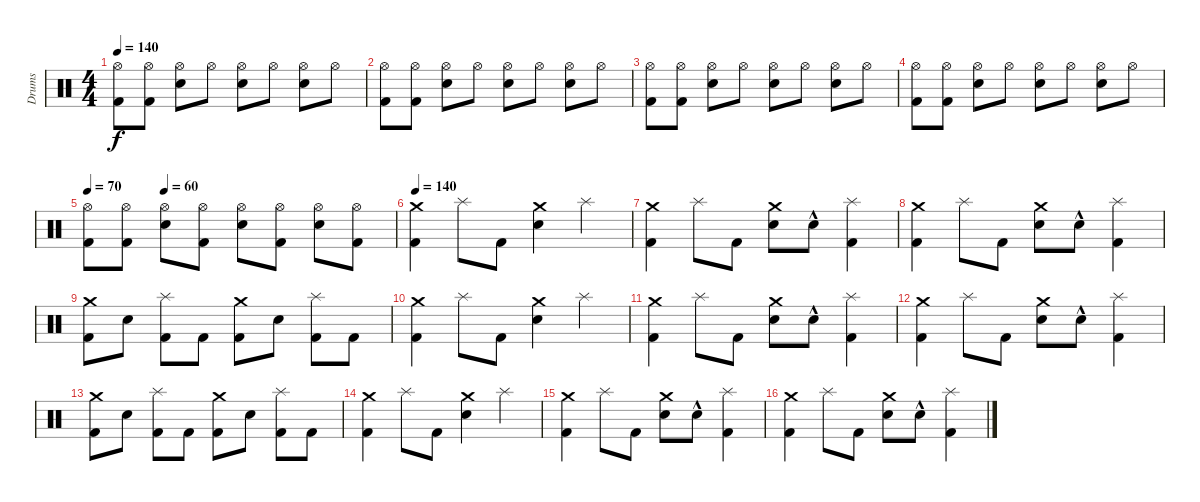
\track ("Drums" "Drums") {instrument percussion}
\staff {score}
\articulation defaults
\ts (4 4)
\tempo 140
\clef neutral
\ks c
("Hi-Hat (open)" "Kick (hit) 2").8{dy f} ("Hi-Hat (open)" "Kick (hit) 2").8 ("Hi-Hat (open)" "Snare (hit) 2").8 "Hi-Hat (open)".8 ("Snare (hit) 2" "Hi-Hat (open)").8 "Hi-Hat (open)".8 ("Snare (hit) 2" "Hi-Hat (open)").8 "Hi-Hat (open)".8 |
("Hi-Hat (open)" "Kick (hit) 2").8 ("Hi-Hat (open)" "Kick (hit) 2").8 ("Hi-Hat (open)" "Snare (hit) 2").8 "Hi-Hat (open)".8 ("Snare (hit) 2" "Hi-Hat (open)").8 "Hi-Hat (open)".8 ("Snare (hit) 2" "Hi-Hat (open)").8 "Hi-Hat (open)".8 |
("Hi-Hat (open)" "Kick (hit) 2").8 ("Hi-Hat (open)" "Kick (hit) 2").8 ("Hi-Hat (open)" "Snare (hit) 2").8 "Hi-Hat (open)".8 ("Snare (hit) 2" "Hi-Hat (open)").8 "Hi-Hat (open)".8 ("Snare (hit) 2" "Hi-Hat (open)").8 "Hi-Hat (open)".8 |
("Hi-Hat (open)" "Kick (hit) 2").8 ("Hi-Hat (open)" "Kick (hit) 2").8 ("Hi-Hat (open)" "Snare (hit) 2").8 "Hi-Hat (open)".8 ("Snare (hit) 2" "Hi-Hat (open)").8 "Hi-Hat (open)".8 ("Snare (hit) 2" "Hi-Hat (open)").8 "Hi-Hat (open)".8 |
\tempo 70
\tempo (60 0.25)
("Hi-Hat (open)" "Kick (hit) 2").8 ("Hi-Hat (open)" "Kick (hit) 2").8 ("Hi-Hat (open)" "Snare (hit) 2").8 ("Hi-Hat (open)" "Kick (hit) 2").8 ("Snare (hit) 2" "Hi-Hat (open)").8 ("Hi-Hat (open)" "Kick (hit) 2").8 ("Snare (hit) 2" "Hi-Hat (open)").8 ("Hi-Hat (open)" "Kick (hit) 2").8 |
\tempo 140
("Crash medium (hit)" "Kick (hit) 2").4 "Splash (hit)".8 "Kick (hit) 2".8 ("Crash medium (hit)" "Snare (hit) 2").4 "Splash (hit)".4 |
("Crash medium (hit)" "Kick (hit) 2").4 "Splash (hit)".8 "Kick (hit) 2".8 ("Crash medium (hit)" "Snare (hit) 2").8 "Snare (hit) 2"{hac}.8 ("Splash (hit)" "Kick (hit) 2").4 |
("Crash medium (hit)" "Kick (hit) 2").4 "Splash (hit)".8 "Kick (hit) 2".8 ("Crash medium (hit)" "Snare (hit) 2").8 "Snare (hit) 2"{hac}.8 ("Splash (hit)" "Kick (hit) 2").4 |
("Crash medium (hit)" "Kick (hit) 2").8 "Snare (hit) 2".8 ("Splash (hit)" "Kick (hit) 2").8 "Kick (hit) 2".8 ("Crash medium (hit)" "Kick (hit) 2").8 "Snare (hit) 2".8 ("Splash (hit)" "Kick (hit) 2").8 "Kick (hit) 2".8 |
("Crash medium (hit)" "Kick (hit) 2").4 "Splash (hit)".8 "Kick (hit) 2".8 ("Crash medium (hit)" "Snare (hit) 2").4 "Splash (hit)".4 |
("Crash medium (hit)" "Kick (hit) 2").4 "Splash (hit)".8 "Kick (hit) 2".8 ("Crash medium (hit)" "Snare (hit) 2").8 "Snare (hit) 2"{hac}.8 ("Splash (hit)" "Kick (hit) 2").4 |
("Crash medium (hit)" "Kick (hit) 2").4 "Splash (hit)".8 "Kick (hit) 2".8 ("Crash medium (hit)" "Snare (hit) 2").8 "Snare (hit) 2"{hac}.8 ("Splash (hit)" "Kick (hit) 2").4 |
("Crash medium (hit)" "Kick (hit) 2").8 "Snare (hit) 2".8 ("Splash (hit)" "Kick (hit) 2").8 "Kick (hit) 2".8 ("Crash medium (hit)" "Kick (hit) 2").8 "Snare (hit) 2".8 ("Splash (hit)" "Kick (hit) 2").8 "Kick (hit) 2".8 |
("Crash medium (hit)" "Kick (hit) 2").4 "Splash (hit)".8 "Kick (hit) 2".8 ("Crash medium (hit)" "Snare (hit) 2").4 "Splash (hit)".4 |
("Crash medium (hit)" "Kick (hit) 2").4 "Splash (hit)".8 "Kick (hit) 2".8 ("Crash medium (hit)" "Snare (hit) 2").8 "Snare (hit) 2"{hac}.8 ("Splash (hit)" "Kick (hit) 2").4 |
("Crash medium (hit)" "Kick (hit) 2").4 "Splash (hit)".8 "Kick (hit) 2".8 ("Crash medium (hit)" "Snare (hit) 2").8 "Snare (hit) 2"{hac}.8 ("Splash (hit)" "Kick (hit) 2").4
